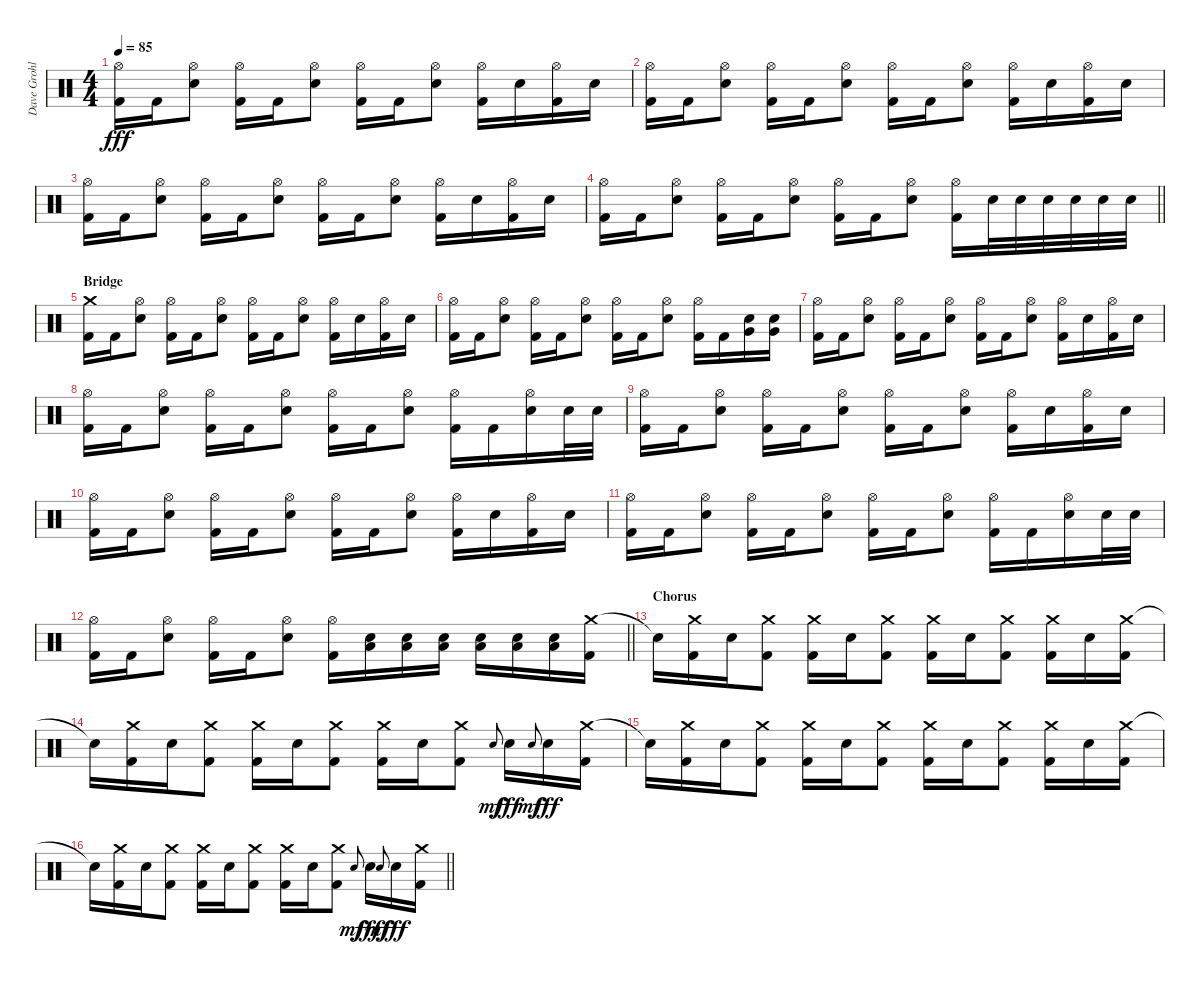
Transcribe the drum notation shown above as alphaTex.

\track ("Dave Grohl ( Drums )" "Dave Grohl") {instrument percussion}
\staff {score}
\articulation defaults
\ts (4 4)
\tempo 85
\clef neutral
\ks c
("Hi-Hat (open)" "Kick (hit) 2").16{dy fff} "Kick (hit) 2".16 ("Hi-Hat (open)" "Electric Snare (hit)").8 ("Hi-Hat (open)" "Kick (hit) 2").16 "Kick (hit) 2".16 ("Hi-Hat (open)" "Electric Snare (hit)").8 ("Hi-Hat (open)" "Kick (hit) 2").16 "Kick (hit) 2".16 ("Hi-Hat (open)" "Electric Snare (hit)").8 ("Hi-Hat (open)" "Kick (hit) 2").16 "Electric Snare (hit)".16 ("Hi-Hat (open)" "Kick (hit) 2").16 "Electric Snare (hit)".16 |
("Hi-Hat (open)" "Kick (hit) 2").16 "Kick (hit) 2".16 ("Hi-Hat (open)" "Electric Snare (hit)").8 ("Hi-Hat (open)" "Kick (hit) 2").16 "Kick (hit) 2".16 ("Hi-Hat (open)" "Electric Snare (hit)").8 ("Hi-Hat (open)" "Kick (hit) 2").16 "Kick (hit) 2".16 ("Hi-Hat (open)" "Electric Snare (hit)").8 ("Hi-Hat (open)" "Kick (hit) 2").16 "Electric Snare (hit)".16 ("Hi-Hat (open)" "Kick (hit) 2").16 "Electric Snare (hit)".16 |
("Hi-Hat (open)" "Kick (hit) 2").16 "Kick (hit) 2".16 ("Hi-Hat (open)" "Electric Snare (hit)").8 ("Hi-Hat (open)" "Kick (hit) 2").16 "Kick (hit) 2".16 ("Hi-Hat (open)" "Electric Snare (hit)").8 ("Hi-Hat (open)" "Kick (hit) 2").16 "Kick (hit) 2".16 ("Hi-Hat (open)" "Electric Snare (hit)").8 ("Hi-Hat (open)" "Kick (hit) 2").16 "Electric Snare (hit)".16 ("Hi-Hat (open)" "Kick (hit) 2").16 "Electric Snare (hit)".16 |
\barLineRight lightlight
("Hi-Hat (open)" "Kick (hit) 2").16 "Kick (hit) 2".16 ("Hi-Hat (open)" "Electric Snare (hit)").8 ("Hi-Hat (open)" "Kick (hit) 2").16 "Kick (hit) 2".16 ("Hi-Hat (open)" "Electric Snare (hit)").8 ("Hi-Hat (open)" "Kick (hit) 2").16 "Kick (hit) 2".16 ("Hi-Hat (open)" "Electric Snare (hit)").8 ("Hi-Hat (open)" "Kick (hit) 2").16 "Electric Snare (hit)".32 "Electric Snare (hit)".32 "Electric Snare (hit)".32 "Electric Snare (hit)".32 "Electric Snare (hit)".32 "Electric Snare (hit)".32 |
\section ("" "Bridge")
("Crash medium (hit)" "Kick (hit) 2").16 "Kick (hit) 2".16 ("Hi-Hat (open)" "Electric Snare (hit)").8 ("Hi-Hat (open)" "Kick (hit) 2").16 "Kick (hit) 2".16 ("Hi-Hat (open)" "Electric Snare (hit)").8 ("Hi-Hat (open)" "Kick (hit) 2").16 "Kick (hit) 2".16 ("Hi-Hat (open)" "Electric Snare (hit)").8 ("Hi-Hat (open)" "Kick (hit) 2").16 "Electric Snare (hit)".16 ("Hi-Hat (open)" "Kick (hit) 2").16 "Electric Snare (hit)".16 |
("Hi-Hat (open)" "Kick (hit) 2").16 "Kick (hit) 2".16 ("Hi-Hat (open)" "Electric Snare (hit)").8 ("Hi-Hat (open)" "Kick (hit) 2").16 "Kick (hit) 2".16 ("Hi-Hat (open)" "Electric Snare (hit)").8 ("Hi-Hat (open)" "Kick (hit) 2").16 "Kick (hit) 2".16 ("Hi-Hat (open)" "Electric Snare (hit)").8 ("Hi-Hat (open)" "Kick (hit) 2").16 "Kick (hit) 2".16 ("Very Low Tom (hit)" "Electric Snare (hit)").16 ("Very Low Tom (hit)" "Electric Snare (hit)").16 |
("Hi-Hat (open)" "Kick (hit) 2").16 "Kick (hit) 2".16 ("Hi-Hat (open)" "Electric Snare (hit)").8 ("Hi-Hat (open)" "Kick (hit) 2").16 "Kick (hit) 2".16 ("Hi-Hat (open)" "Electric Snare (hit)").8 ("Hi-Hat (open)" "Kick (hit) 2").16 "Kick (hit) 2".16 ("Hi-Hat (open)" "Electric Snare (hit)").8 ("Hi-Hat (open)" "Kick (hit) 2").16 "Electric Snare (hit)".16 ("Hi-Hat (open)" "Kick (hit) 2").16 "Electric Snare (hit)".16 |
("Hi-Hat (open)" "Kick (hit) 2").16 "Kick (hit) 2".16 ("Hi-Hat (open)" "Electric Snare (hit)").8 ("Hi-Hat (open)" "Kick (hit) 2").16 "Kick (hit) 2".16 ("Hi-Hat (open)" "Electric Snare (hit)").8 ("Hi-Hat (open)" "Kick (hit) 2").16 "Kick (hit) 2".16 ("Hi-Hat (open)" "Electric Snare (hit)").8 ("Hi-Hat (open)" "Kick (hit) 2").16 "Kick (hit) 2".16 ("Hi-Hat (open)" "Electric Snare (hit)").16 "Electric Snare (hit)".32 "Electric Snare (hit)".32 |
("Hi-Hat (open)" "Kick (hit) 2").16 "Kick (hit) 2".16 ("Hi-Hat (open)" "Electric Snare (hit)").8 ("Hi-Hat (open)" "Kick (hit) 2").16 "Kick (hit) 2".16 ("Hi-Hat (open)" "Electric Snare (hit)").8 ("Hi-Hat (open)" "Kick (hit) 2").16 "Kick (hit) 2".16 ("Hi-Hat (open)" "Electric Snare (hit)").8 ("Hi-Hat (open)" "Kick (hit) 2").16 "Electric Snare (hit)".16 ("Hi-Hat (open)" "Kick (hit) 2").16 "Electric Snare (hit)".16 |
("Hi-Hat (open)" "Kick (hit) 2").16 "Kick (hit) 2".16 ("Hi-Hat (open)" "Electric Snare (hit)").8 ("Hi-Hat (open)" "Kick (hit) 2").16 "Kick (hit) 2".16 ("Hi-Hat (open)" "Electric Snare (hit)").8 ("Hi-Hat (open)" "Kick (hit) 2").16 "Kick (hit) 2".16 ("Hi-Hat (open)" "Electric Snare (hit)").8 ("Hi-Hat (open)" "Kick (hit) 2").16 "Electric Snare (hit)".16 ("Hi-Hat (open)" "Kick (hit) 2").16 "Electric Snare (hit)".16 |
("Hi-Hat (open)" "Kick (hit) 2").16 "Kick (hit) 2".16 ("Hi-Hat (open)" "Electric Snare (hit)").8 ("Hi-Hat (open)" "Kick (hit) 2").16 "Kick (hit) 2".16 ("Hi-Hat (open)" "Electric Snare (hit)").8 ("Hi-Hat (open)" "Kick (hit) 2").16 "Kick (hit) 2".16 ("Hi-Hat (open)" "Electric Snare (hit)").8 ("Hi-Hat (open)" "Kick (hit) 2").16 "Kick (hit) 2".16 ("Hi-Hat (open)" "Electric Snare (hit)").16 "Electric Snare (hit)".32 "Electric Snare (hit)".32 |
\barLineRight lightlight
("Hi-Hat (open)" "Kick (hit) 2").16 "Kick (hit) 2".16 ("Hi-Hat (open)" "Electric Snare (hit)").8 ("Hi-Hat (open)" "Kick (hit) 2").16 "Kick (hit) 2".16 ("Hi-Hat (open)" "Electric Snare (hit)").8 ("Hi-Hat (open)" "Kick (hit) 2").16 ("Low Floor Tom (hit)" "Electric Snare (hit)").16 ("Low Floor Tom (hit)" "Electric Snare (hit)").16 ("Low Floor Tom (hit)" "Electric Snare (hit)").16 ("Low Floor Tom (hit)" "Electric Snare (hit)").16 ("Low Floor Tom (hit)" "Electric Snare (hit)").16 ("Low Floor Tom (hit)" "Electric Snare (hit)").16 ("Crash medium (hit)" "Kick (hit) 2").16 |
\section ("" "Chorus")
"Snare (hit)"{t}.16 ("Crash medium (hit)" "Kick (hit) 2").16 "Electric Snare (hit)".16 ("Crash medium (hit)" "Kick (hit) 2").8 ("Crash medium (hit)" "Kick (hit) 2").16 "Electric Snare (hit)".16 ("Crash medium (hit)" "Kick (hit) 2").8 ("Crash medium (hit)" "Kick (hit) 2").16 "Electric Snare (hit)".16 ("Crash medium (hit)" "Kick (hit) 2").8 ("Crash medium (hit)" "Kick (hit) 2").16 "Electric Snare (hit)".16 ("Crash medium (hit)" "Kick (hit) 2").16 |
"Snare (hit)"{t}.16 ("Crash medium (hit)" "Kick (hit) 2").16 "Electric Snare (hit)".16 ("Crash medium (hit)" "Kick (hit) 2").8 ("Crash medium (hit)" "Kick (hit) 2").16 "Electric Snare (hit)".16 ("Crash medium (hit)" "Kick (hit) 2").8 ("Crash medium (hit)" "Kick (hit) 2").16 "Electric Snare (hit)".16 ("Crash medium (hit)" "Kick (hit) 2").8 "Electric Snare (hit)".8{gr onbeat dy mf} "Electric Snare (hit)".16{dy fff} "Electric Snare (hit)".8{gr onbeat dy mf} "Electric Snare (hit)".16{dy fff} ("Crash medium (hit)" "Kick (hit) 2").16 |
"Snare (hit)"{t}.16 ("Crash medium (hit)" "Kick (hit) 2").16 "Electric Snare (hit)".16 ("Crash medium (hit)" "Kick (hit) 2").8 ("Crash medium (hit)" "Kick (hit) 2").16 "Electric Snare (hit)".16 ("Crash medium (hit)" "Kick (hit) 2").8 ("Crash medium (hit)" "Kick (hit) 2").16 "Electric Snare (hit)".16 ("Crash medium (hit)" "Kick (hit) 2").8 ("Crash medium (hit)" "Kick (hit) 2").16 "Electric Snare (hit)".16 ("Crash medium (hit)" "Kick (hit) 2").16 |
\barLineRight lightlight "Snare (hit)"{t}.16
("Crash medium (hit)" "Kick (hit) 2").16 "Electric Snare (hit)".16 ("Crash medium (hit)" "Kick (hit) 2").8 ("Crash medium (hit)" "Kick (hit) 2").16 "Electric Snare (hit)".16 ("Crash medium (hit)" "Kick (hit) 2").8 ("Crash medium (hit)" "Kick (hit) 2").16 "Electric Snare (hit)".16 ("Crash medium (hit)" "Kick (hit) 2").8 "Electric Snare (hit)".8{gr onbeat dy mf} "Electric Snare (hit)".16{dy fff} "Electric Snare (hit)".8{gr onbeat dy mf} "Electric Snare (hit)".16{dy fff} ("Crash medium (hit)" "Kick (hit) 2").16
